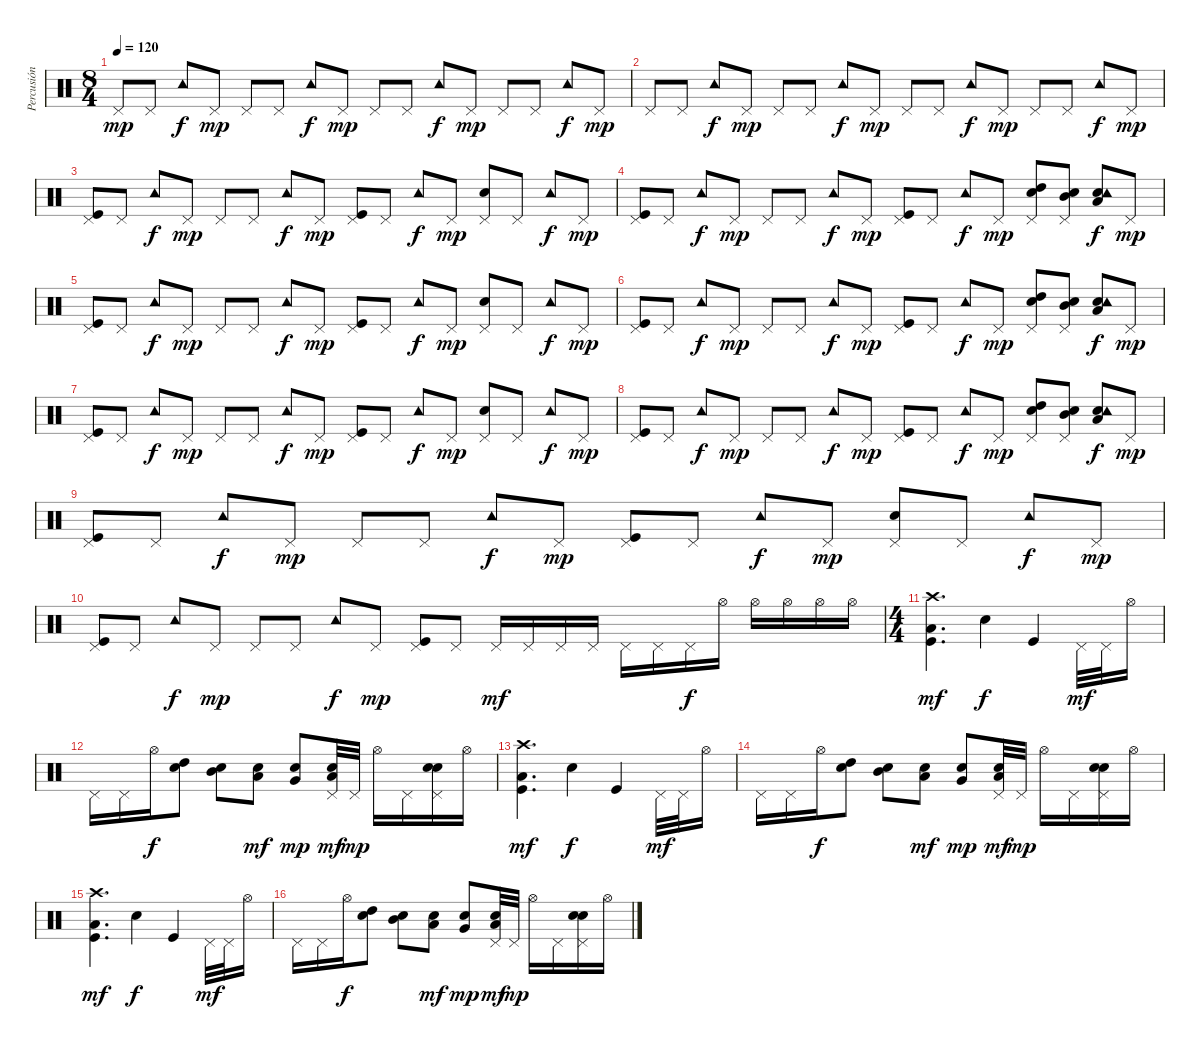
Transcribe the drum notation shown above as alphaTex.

\track ("Percusión" "Percusión") {instrument percussion}
\staff {score}
\articulation defaults
\ts (8 4)
\tempo 120
\clef neutral
\ks c "Pedal Hi-Hat (hit)".8{dy mp} "Pedal Hi-Hat (hit)".8 "Tambourine (hit)".8{dy f} "Pedal Hi-Hat (hit)".8{dy mp} "Pedal Hi-Hat (hit)".8 "Pedal Hi-Hat (hit)".8 "Tambourine (hit)".8{dy f} "Pedal Hi-Hat (hit)".8{dy mp} "Pedal Hi-Hat (hit)".8 "Pedal Hi-Hat (hit)".8 "Tambourine (hit)".8{dy f} "Pedal Hi-Hat (hit)".8{dy mp} "Pedal Hi-Hat (hit)".8 "Pedal Hi-Hat (hit)".8 "Tambourine (hit)".8{dy f} "Pedal Hi-Hat (hit)".8{dy mp}
|
"Pedal Hi-Hat (hit)".8 "Pedal Hi-Hat (hit)".8 "Tambourine (hit)".8{dy f} "Pedal Hi-Hat (hit)".8{dy mp} "Pedal Hi-Hat (hit)".8 "Pedal Hi-Hat (hit)".8 "Tambourine (hit)".8{dy f} "Pedal Hi-Hat (hit)".8{dy mp} "Pedal Hi-Hat (hit)".8 "Pedal Hi-Hat (hit)".8 "Tambourine (hit)".8{dy f} "Pedal Hi-Hat (hit)".8{dy mp} "Pedal Hi-Hat (hit)".8 "Pedal Hi-Hat (hit)".8 "Tambourine (hit)".8{dy f} "Pedal Hi-Hat (hit)".8{dy mp} |
("Kick (hit)" "Pedal Hi-Hat (hit)").8 "Pedal Hi-Hat (hit)".8 "Tambourine (hit)".8{dy f} "Pedal Hi-Hat (hit)".8{dy mp} "Pedal Hi-Hat (hit)".8 "Pedal Hi-Hat (hit)".8 "Tambourine (hit)".8{dy f} "Pedal Hi-Hat (hit)".8{dy mp} ("Kick (hit)" "Pedal Hi-Hat (hit)").8 "Pedal Hi-Hat (hit)".8 "Tambourine (hit)".8{dy f} "Pedal Hi-Hat (hit)".8{dy mp} ("Electric Snare (hit)" "Pedal Hi-Hat (hit)").8 "Pedal Hi-Hat (hit)".8 "Tambourine (hit)".8{dy f} "Pedal Hi-Hat (hit)".8{dy mp} |
("Kick (hit)" "Pedal Hi-Hat (hit)").8 "Pedal Hi-Hat (hit)".8 "Tambourine (hit)".8{dy f} "Pedal Hi-Hat (hit)".8{dy mp} "Pedal Hi-Hat (hit)".8 "Pedal Hi-Hat (hit)".8 "Tambourine (hit)".8{dy f} "Pedal Hi-Hat (hit)".8{dy mp} ("Kick (hit)" "Pedal Hi-Hat (hit)").8 "Pedal Hi-Hat (hit)".8 "Tambourine (hit)".8{dy f} "Pedal Hi-Hat (hit)".8{dy mp} ("Electric Snare (hit)" "High Tom (hit)" "Pedal Hi-Hat (hit)").8 ("Electric Snare (hit)" "Mid Tom (hit)" "Pedal Hi-Hat (hit)").8 ("Electric Snare (hit)" "Low Tom (hit)" "Tambourine (hit)").8{dy f} "Pedal Hi-Hat (hit)".8{dy mp} |
("Kick (hit)" "Pedal Hi-Hat (hit)").8 "Pedal Hi-Hat (hit)".8 "Tambourine (hit)".8{dy f} "Pedal Hi-Hat (hit)".8{dy mp} "Pedal Hi-Hat (hit)".8 "Pedal Hi-Hat (hit)".8 "Tambourine (hit)".8{dy f} "Pedal Hi-Hat (hit)".8{dy mp} ("Kick (hit)" "Pedal Hi-Hat (hit)").8 "Pedal Hi-Hat (hit)".8 "Tambourine (hit)".8{dy f} "Pedal Hi-Hat (hit)".8{dy mp} ("Electric Snare (hit)" "Pedal Hi-Hat (hit)").8 "Pedal Hi-Hat (hit)".8 "Tambourine (hit)".8{dy f} "Pedal Hi-Hat (hit)".8{dy mp} |
("Kick (hit)" "Pedal Hi-Hat (hit)").8 "Pedal Hi-Hat (hit)".8 "Tambourine (hit)".8{dy f} "Pedal Hi-Hat (hit)".8{dy mp} "Pedal Hi-Hat (hit)".8 "Pedal Hi-Hat (hit)".8 "Tambourine (hit)".8{dy f} "Pedal Hi-Hat (hit)".8{dy mp} ("Kick (hit)" "Pedal Hi-Hat (hit)").8 "Pedal Hi-Hat (hit)".8 "Tambourine (hit)".8{dy f} "Pedal Hi-Hat (hit)".8{dy mp} ("Electric Snare (hit)" "High Tom (hit)" "Pedal Hi-Hat (hit)").8 ("Electric Snare (hit)" "Mid Tom (hit)" "Pedal Hi-Hat (hit)").8 ("Electric Snare (hit)" "Low Tom (hit)" "Tambourine (hit)").8{dy f} "Pedal Hi-Hat (hit)".8{dy mp} |
("Kick (hit)" "Pedal Hi-Hat (hit)").8 "Pedal Hi-Hat (hit)".8 "Tambourine (hit)".8{dy f} "Pedal Hi-Hat (hit)".8{dy mp} "Pedal Hi-Hat (hit)".8 "Pedal Hi-Hat (hit)".8 "Tambourine (hit)".8{dy f} "Pedal Hi-Hat (hit)".8{dy mp} ("Kick (hit)" "Pedal Hi-Hat (hit)").8 "Pedal Hi-Hat (hit)".8 "Tambourine (hit)".8{dy f} "Pedal Hi-Hat (hit)".8{dy mp} ("Electric Snare (hit)" "Pedal Hi-Hat (hit)").8 "Pedal Hi-Hat (hit)".8 "Tambourine (hit)".8{dy f} "Pedal Hi-Hat (hit)".8{dy mp} |
("Kick (hit)" "Pedal Hi-Hat (hit)").8 "Pedal Hi-Hat (hit)".8 "Tambourine (hit)".8{dy f} "Pedal Hi-Hat (hit)".8{dy mp} "Pedal Hi-Hat (hit)".8 "Pedal Hi-Hat (hit)".8 "Tambourine (hit)".8{dy f} "Pedal Hi-Hat (hit)".8{dy mp} ("Kick (hit)" "Pedal Hi-Hat (hit)").8 "Pedal Hi-Hat (hit)".8 "Tambourine (hit)".8{dy f} "Pedal Hi-Hat (hit)".8{dy mp} ("Electric Snare (hit)" "High Tom (hit)" "Pedal Hi-Hat (hit)").8 ("Electric Snare (hit)" "Mid Tom (hit)" "Pedal Hi-Hat (hit)").8 ("Electric Snare (hit)" "Low Tom (hit)" "Tambourine (hit)").8{dy f} "Pedal Hi-Hat (hit)".8{dy mp} |
("Kick (hit)" "Pedal Hi-Hat (hit)").8 "Pedal Hi-Hat (hit)".8 "Tambourine (hit)".8{dy f} "Pedal Hi-Hat (hit)".8{dy mp} "Pedal Hi-Hat (hit)".8 "Pedal Hi-Hat (hit)".8 "Tambourine (hit)".8{dy f} "Pedal Hi-Hat (hit)".8{dy mp} ("Kick (hit)" "Pedal Hi-Hat (hit)").8 "Pedal Hi-Hat (hit)".8 "Tambourine (hit)".8{dy f} "Pedal Hi-Hat (hit)".8{dy mp} ("Electric Snare (hit)" "Pedal Hi-Hat (hit)").8 "Pedal Hi-Hat (hit)".8 "Tambourine (hit)".8{dy f} "Pedal Hi-Hat (hit)".8{dy mp} |
("Kick (hit)" "Pedal Hi-Hat (hit)").8 "Pedal Hi-Hat (hit)".8 "Tambourine (hit)".8{dy f} "Pedal Hi-Hat (hit)".8{dy mp} "Pedal Hi-Hat (hit)".8 "Pedal Hi-Hat (hit)".8 "Tambourine (hit)".8{dy f} "Pedal Hi-Hat (hit)".8{dy mp} ("Kick (hit)" "Pedal Hi-Hat (hit)").8 "Pedal Hi-Hat (hit)".8 "Pedal Hi-Hat (hit)".16{dy mf} "Pedal Hi-Hat (hit)".16 "Pedal Hi-Hat (hit)".16 "Pedal Hi-Hat (hit)".16 "Pedal Hi-Hat (hit)".16 "Pedal Hi-Hat (hit)".16 "Pedal Hi-Hat (hit)".16{dy f} "Hi-Hat (open)".16 "Hi-Hat (open)".16 "Hi-Hat (open)".16 "Hi-Hat (open)".16 "Hi-Hat (open)".16 |
\ts (4 4)
("Kick (hit)" "Low Tom (hit)" "Crash high (hit)").4{d dy mf} "Electric Snare (hit)".4{dy f} "Kick (hit)".4 "Pedal Hi-Hat (hit)".32{dy mf} "Pedal Hi-Hat (hit)".32 "Hi-Hat (open)".16 |
"Pedal Hi-Hat (hit)".16 "Pedal Hi-Hat (hit)".16 "Hi-Hat (open)".16{dy f} ("Electric Snare (hit)" "High Tom (hit)").8 ("Electric Snare (hit)" "Mid Tom (hit)").8 ("Electric Snare (hit)" "Low Tom (hit)").8{dy mf} ("Electric Snare (hit)" "Very Low Tom (hit)").8{dy mp} ("Electric Snare (hit)" "Low Floor Tom (hit)" "Pedal Hi-Hat (hit)").32{dy mf} "Pedal Hi-Hat (hit)".32{dy mp} "Hi-Hat (open)".16 "Pedal Hi-Hat (hit)".16 ("Electric Snare (hit)" "Electric Snare (hit)" "Pedal Hi-Hat (hit)").16 "Hi-Hat (open)".16 |
("Kick (hit)" "Low Tom (hit)" "Crash high (hit)").4{d dy mf} "Electric Snare (hit)".4{dy f} "Kick (hit)".4 "Pedal Hi-Hat (hit)".32{dy mf} "Pedal Hi-Hat (hit)".32 "Hi-Hat (open)".16 |
"Pedal Hi-Hat (hit)".16 "Pedal Hi-Hat (hit)".16 "Hi-Hat (open)".16{dy f} ("Electric Snare (hit)" "High Tom (hit)").8 ("Electric Snare (hit)" "Mid Tom (hit)").8 ("Electric Snare (hit)" "Low Tom (hit)").8{dy mf} ("Electric Snare (hit)" "Very Low Tom (hit)").8{dy mp} ("Electric Snare (hit)" "Low Floor Tom (hit)" "Pedal Hi-Hat (hit)").32{dy mf} "Pedal Hi-Hat (hit)".32{dy mp} "Hi-Hat (open)".16 "Pedal Hi-Hat (hit)".16 ("Electric Snare (hit)" "Electric Snare (hit)" "Pedal Hi-Hat (hit)").16 "Hi-Hat (open)".16 |
("Kick (hit)" "Low Tom (hit)" "Crash high (hit)").4{d dy mf} "Electric Snare (hit)".4{dy f} "Kick (hit)".4 "Pedal Hi-Hat (hit)".32{dy mf} "Pedal Hi-Hat (hit)".32 "Hi-Hat (open)".16 |
"Pedal Hi-Hat (hit)".16 "Pedal Hi-Hat (hit)".16 "Hi-Hat (open)".16{dy f} ("Electric Snare (hit)" "High Tom (hit)").8 ("Electric Snare (hit)" "Mid Tom (hit)").8 ("Electric Snare (hit)" "Low Tom (hit)").8{dy mf} ("Electric Snare (hit)" "Very Low Tom (hit)").8{dy mp} ("Electric Snare (hit)" "Low Floor Tom (hit)" "Pedal Hi-Hat (hit)").32{dy mf} "Pedal Hi-Hat (hit)".32{dy mp} "Hi-Hat (open)".16 "Pedal Hi-Hat (hit)".16 ("Electric Snare (hit)" "Electric Snare (hit)" "Pedal Hi-Hat (hit)").16 "Hi-Hat (open)".16
